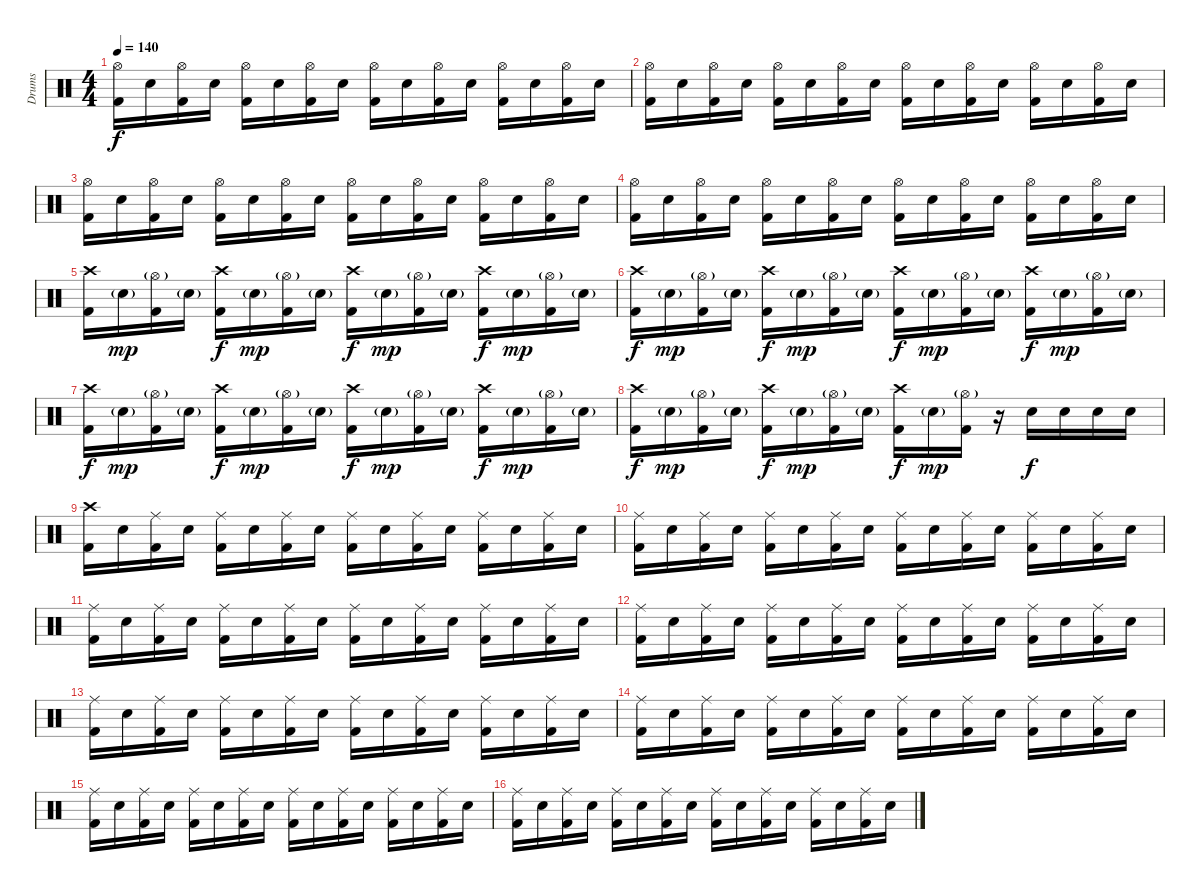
\track ("Drums" "Drums") {instrument percussion}
\staff {score}
\articulation defaults
\ts (4 4)
\tempo 140
\clef neutral
\ks c
("Kick (hit) 2" "Hi-Hat (open)").16{dy f} "Electric Snare (hit)".16 ("Kick (hit) 2" "Hi-Hat (open)").16 "Electric Snare (hit)".16 ("Kick (hit) 2" "Hi-Hat (open)").16 "Electric Snare (hit)".16 ("Kick (hit) 2" "Hi-Hat (open)").16 "Electric Snare (hit)".16 ("Kick (hit) 2" "Hi-Hat (open)").16 "Electric Snare (hit)".16 ("Kick (hit) 2" "Hi-Hat (open)").16 "Electric Snare (hit)".16 ("Kick (hit) 2" "Hi-Hat (open)").16 "Electric Snare (hit)".16 ("Kick (hit) 2" "Hi-Hat (open)").16 "Electric Snare (hit)".16 |
("Kick (hit) 2" "Hi-Hat (open)").16 "Electric Snare (hit)".16 ("Kick (hit) 2" "Hi-Hat (open)").16 "Electric Snare (hit)".16 ("Kick (hit) 2" "Hi-Hat (open)").16 "Electric Snare (hit)".16 ("Kick (hit) 2" "Hi-Hat (open)").16 "Electric Snare (hit)".16 ("Kick (hit) 2" "Hi-Hat (open)").16 "Electric Snare (hit)".16 ("Kick (hit) 2" "Hi-Hat (open)").16 "Electric Snare (hit)".16 ("Kick (hit) 2" "Hi-Hat (open)").16 "Electric Snare (hit)".16 ("Kick (hit) 2" "Hi-Hat (open)").16 "Electric Snare (hit)".16 |
("Kick (hit) 2" "Hi-Hat (open)").16 "Electric Snare (hit)".16 ("Kick (hit) 2" "Hi-Hat (open)").16 "Electric Snare (hit)".16 ("Kick (hit) 2" "Hi-Hat (open)").16 "Electric Snare (hit)".16 ("Kick (hit) 2" "Hi-Hat (open)").16 "Electric Snare (hit)".16 ("Kick (hit) 2" "Hi-Hat (open)").16 "Electric Snare (hit)".16 ("Kick (hit) 2" "Hi-Hat (open)").16 "Electric Snare (hit)".16 ("Kick (hit) 2" "Hi-Hat (open)").16 "Electric Snare (hit)".16 ("Kick (hit) 2" "Hi-Hat (open)").16 "Electric Snare (hit)".16 |
("Kick (hit) 2" "Hi-Hat (open)").16 "Electric Snare (hit)".16 ("Kick (hit) 2" "Hi-Hat (open)").16 "Electric Snare (hit)".16 ("Kick (hit) 2" "Hi-Hat (open)").16 "Electric Snare (hit)".16 ("Kick (hit) 2" "Hi-Hat (open)").16 "Electric Snare (hit)".16 ("Kick (hit) 2" "Hi-Hat (open)").16 "Electric Snare (hit)".16 ("Kick (hit) 2" "Hi-Hat (open)").16 "Electric Snare (hit)".16 ("Kick (hit) 2" "Hi-Hat (open)").16 "Electric Snare (hit)".16 ("Kick (hit) 2" "Hi-Hat (open)").16 "Electric Snare (hit)".16 |
("Kick (hit) 2" "Crash high (hit)").16 "Electric Snare (hit)"{g}.16{dy mp} ("Kick (hit) 2" "Hi-Hat (open)"{g}).16 "Electric Snare (hit)"{g}.16 ("Kick (hit) 2" "Crash high (hit)").16{dy f} "Electric Snare (hit)"{g}.16{dy mp} ("Kick (hit) 2" "Hi-Hat (open)"{g}).16 "Electric Snare (hit)"{g}.16 ("Kick (hit) 2" "Crash high (hit)").16{dy f} "Electric Snare (hit)"{g}.16{dy mp} ("Kick (hit) 2" "Hi-Hat (open)"{g}).16 "Electric Snare (hit)"{g}.16 ("Kick (hit) 2" "Crash high (hit)").16{dy f} "Electric Snare (hit)"{g}.16{dy mp} ("Kick (hit) 2" "Hi-Hat (open)"{g}).16 "Electric Snare (hit)"{g}.16 |
("Kick (hit) 2" "Crash high (hit)").16{dy f} "Electric Snare (hit)"{g}.16{dy mp} ("Kick (hit) 2" "Hi-Hat (open)"{g}).16 "Electric Snare (hit)"{g}.16 ("Kick (hit) 2" "Crash high (hit)").16{dy f} "Electric Snare (hit)"{g}.16{dy mp} ("Kick (hit) 2" "Hi-Hat (open)"{g}).16 "Electric Snare (hit)"{g}.16 ("Kick (hit) 2" "Crash high (hit)").16{dy f} "Electric Snare (hit)"{g}.16{dy mp} ("Kick (hit) 2" "Hi-Hat (open)"{g}).16 "Electric Snare (hit)"{g}.16 ("Kick (hit) 2" "Crash high (hit)").16{dy f} "Electric Snare (hit)"{g}.16{dy mp} ("Kick (hit) 2" "Hi-Hat (open)"{g}).16 "Electric Snare (hit)"{g}.16 |
("Kick (hit) 2" "Crash high (hit)").16{dy f} "Electric Snare (hit)"{g}.16{dy mp} ("Kick (hit) 2" "Hi-Hat (open)"{g}).16 "Electric Snare (hit)"{g}.16 ("Kick (hit) 2" "Crash high (hit)").16{dy f} "Electric Snare (hit)"{g}.16{dy mp} ("Kick (hit) 2" "Hi-Hat (open)"{g}).16 "Electric Snare (hit)"{g}.16 ("Kick (hit) 2" "Crash high (hit)").16{dy f} "Electric Snare (hit)"{g}.16{dy mp} ("Kick (hit) 2" "Hi-Hat (open)"{g}).16 "Electric Snare (hit)"{g}.16 ("Kick (hit) 2" "Crash high (hit)").16{dy f} "Electric Snare (hit)"{g}.16{dy mp} ("Kick (hit) 2" "Hi-Hat (open)"{g}).16 "Electric Snare (hit)"{g}.16 |
("Kick (hit) 2" "Crash high (hit)").16{dy f} "Electric Snare (hit)"{g}.16{dy mp} ("Kick (hit) 2" "Hi-Hat (open)"{g}).16 "Electric Snare (hit)"{g}.16 ("Kick (hit) 2" "Crash high (hit)").16{dy f} "Electric Snare (hit)"{g}.16{dy mp} ("Kick (hit) 2" "Hi-Hat (open)"{g}).16 "Electric Snare (hit)"{g}.16 ("Kick (hit) 2" "Crash high (hit)").16{dy f} "Electric Snare (hit)"{g}.16{dy mp} ("Kick (hit) 2" "Hi-Hat (open)"{g}).16 r.16 "Electric Snare (hit)".16{dy f} "Electric Snare (hit)".16 "Electric Snare (hit)".16 "Electric Snare (hit)".16 |
("Kick (hit) 2" "Crash high (hit)").16 "Electric Snare (hit)".16 ("Kick (hit) 2" "Ride (middle)").16 "Electric Snare (hit)".16 ("Kick (hit) 2" "Ride (middle)").16 "Electric Snare (hit)".16 ("Kick (hit) 2" "Ride (middle)").16 "Electric Snare (hit)".16 ("Kick (hit) 2" "Ride (middle)").16 "Electric Snare (hit)".16 ("Kick (hit) 2" "Ride (middle)").16 "Electric Snare (hit)".16 ("Kick (hit) 2" "Ride (middle)").16 "Electric Snare (hit)".16 ("Kick (hit) 2" "Ride (middle)").16 "Electric Snare (hit)".16 |
("Kick (hit) 2" "Ride (middle)").16 "Electric Snare (hit)".16 ("Kick (hit) 2" "Ride (middle)").16 "Electric Snare (hit)".16 ("Kick (hit) 2" "Ride (middle)").16 "Electric Snare (hit)".16 ("Kick (hit) 2" "Ride (middle)").16 "Electric Snare (hit)".16 ("Kick (hit) 2" "Ride (middle)").16 "Electric Snare (hit)".16 ("Kick (hit) 2" "Ride (middle)").16 "Electric Snare (hit)".16 ("Kick (hit) 2" "Ride (middle)").16 "Electric Snare (hit)".16 ("Kick (hit) 2" "Ride (middle)").16 "Electric Snare (hit)".16 |
("Kick (hit) 2" "Ride (middle)").16 "Electric Snare (hit)".16 ("Kick (hit) 2" "Ride (middle)").16 "Electric Snare (hit)".16 ("Kick (hit) 2" "Ride (middle)").16 "Electric Snare (hit)".16 ("Kick (hit) 2" "Ride (middle)").16 "Electric Snare (hit)".16 ("Kick (hit) 2" "Ride (middle)").16 "Electric Snare (hit)".16 ("Kick (hit) 2" "Ride (middle)").16 "Electric Snare (hit)".16 ("Kick (hit) 2" "Ride (middle)").16 "Electric Snare (hit)".16 ("Kick (hit) 2" "Ride (middle)").16 "Electric Snare (hit)".16 |
("Kick (hit) 2" "Ride (middle)").16 "Electric Snare (hit)".16 ("Kick (hit) 2" "Ride (middle)").16 "Electric Snare (hit)".16 ("Kick (hit) 2" "Ride (middle)").16 "Electric Snare (hit)".16 ("Kick (hit) 2" "Ride (middle)").16 "Electric Snare (hit)".16 ("Kick (hit) 2" "Ride (middle)").16 "Electric Snare (hit)".16 ("Kick (hit) 2" "Ride (middle)").16 "Electric Snare (hit)".16 ("Kick (hit) 2" "Ride (middle)").16 "Electric Snare (hit)".16 ("Kick (hit) 2" "Ride (middle)").16 "Electric Snare (hit)".16 |
("Kick (hit) 2" "Ride (middle)").16 "Electric Snare (hit)".16 ("Kick (hit) 2" "Ride (middle)").16 "Electric Snare (hit)".16 ("Kick (hit) 2" "Ride (middle)").16 "Electric Snare (hit)".16 ("Kick (hit) 2" "Ride (middle)").16 "Electric Snare (hit)".16 ("Kick (hit) 2" "Ride (middle)").16 "Electric Snare (hit)".16 ("Kick (hit) 2" "Ride (middle)").16 "Electric Snare (hit)".16 ("Kick (hit) 2" "Ride (middle)").16 "Electric Snare (hit)".16 ("Kick (hit) 2" "Ride (middle)").16 "Electric Snare (hit)".16 |
("Kick (hit) 2" "Ride (middle)").16 "Electric Snare (hit)".16 ("Kick (hit) 2" "Ride (middle)").16 "Electric Snare (hit)".16 ("Kick (hit) 2" "Ride (middle)").16 "Electric Snare (hit)".16 ("Kick (hit) 2" "Ride (middle)").16 "Electric Snare (hit)".16 ("Kick (hit) 2" "Ride (middle)").16 "Electric Snare (hit)".16 ("Kick (hit) 2" "Ride (middle)").16 "Electric Snare (hit)".16 ("Kick (hit) 2" "Ride (middle)").16 "Electric Snare (hit)".16 ("Kick (hit) 2" "Ride (middle)").16 "Electric Snare (hit)".16 |
("Kick (hit) 2" "Ride (middle)").16 "Electric Snare (hit)".16 ("Kick (hit) 2" "Ride (middle)").16 "Electric Snare (hit)".16 ("Kick (hit) 2" "Ride (middle)").16 "Electric Snare (hit)".16 ("Kick (hit) 2" "Ride (middle)").16 "Electric Snare (hit)".16 ("Kick (hit) 2" "Ride (middle)").16 "Electric Snare (hit)".16 ("Kick (hit) 2" "Ride (middle)").16 "Electric Snare (hit)".16 ("Kick (hit) 2" "Ride (middle)").16 "Electric Snare (hit)".16 ("Kick (hit) 2" "Ride (middle)").16 "Electric Snare (hit)".16 |
("Kick (hit) 2" "Ride (middle)").16 "Electric Snare (hit)".16 ("Kick (hit) 2" "Ride (middle)").16 "Electric Snare (hit)".16 ("Kick (hit) 2" "Ride (middle)").16 "Electric Snare (hit)".16 ("Kick (hit) 2" "Ride (middle)").16 "Electric Snare (hit)".16 ("Kick (hit) 2" "Ride (middle)").16 "Electric Snare (hit)".16 ("Kick (hit) 2" "Ride (middle)").16 "Electric Snare (hit)".16 ("Kick (hit) 2" "Ride (middle)").16 "Electric Snare (hit)".16 ("Kick (hit) 2" "Ride (middle)").16 "Electric Snare (hit)".16
